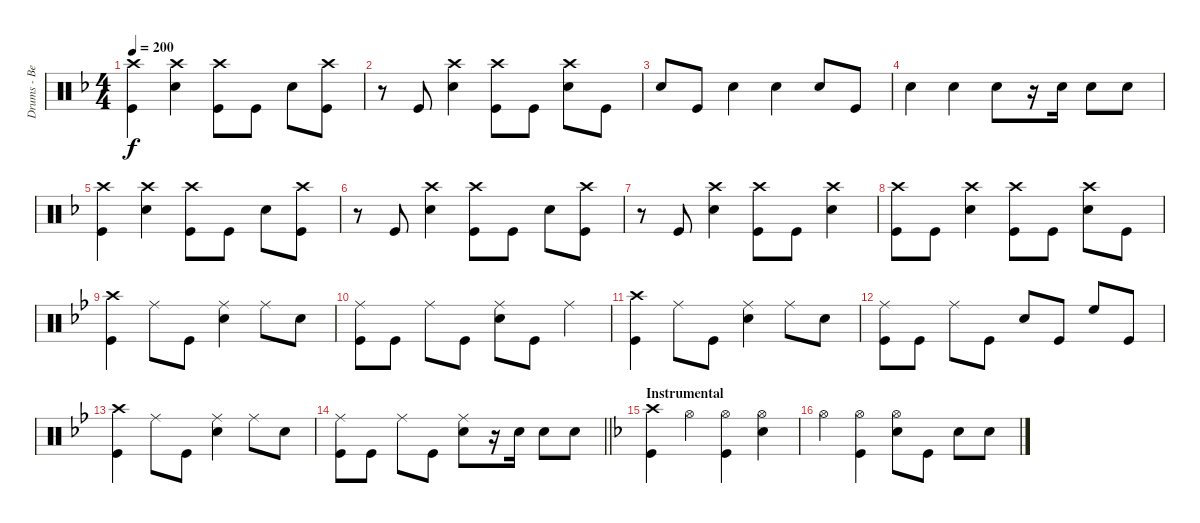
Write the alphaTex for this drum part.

\track ("Drums - Ben Johnston" "Drums - Be") {instrument percussion}
\staff {score}
\articulation defaults
\ts (4 4)
\tempo 200
\clef neutral
\ks f
("Crash high (hit)" "Kick (hit)").4{dy f} ("Crash high (hit)" "Snare (hit) 2").4 ("Crash high (hit)" "Kick (hit)").8 "Kick (hit)".8 "Snare (hit) 2".8 ("Crash high (hit)" "Kick (hit)").8 |
r.8 "Kick (hit)".8 ("Crash high (hit)" "Snare (hit) 2").4 ("Crash high (hit)" "Kick (hit)").8 "Kick (hit)".8 ("Crash high (hit)" "Snare (hit) 2").8 "Kick (hit)".8 |
"Snare (hit) 2".8 "Kick (hit)".8 "Snare (hit) 2".4 "Snare (hit) 2".4 "Snare (hit) 2".8 "Kick (hit)".8 |
"Snare (hit) 2".4 "Snare (hit) 2".4 "Snare (hit) 2".8 r.16 "Snare (hit) 2".16 "Snare (hit) 2".8 "Snare (hit) 2".8 |
("Crash high (hit)" "Kick (hit)").4 ("Crash high (hit)" "Snare (hit) 2").4 ("Crash high (hit)" "Kick (hit)").8 "Kick (hit)".8 "Snare (hit) 2".8 ("Crash high (hit)" "Kick (hit)").8 |
r.8 "Kick (hit)".8 ("Crash high (hit)" "Snare (hit) 2").4 ("Crash high (hit)" "Kick (hit)").8 "Kick (hit)".8 "Snare (hit) 2".8 ("Crash high (hit)" "Kick (hit)").8 |
r.8 "Kick (hit)".8 ("Crash high (hit)" "Snare (hit) 2").4 ("Crash high (hit)" "Kick (hit)").8 "Kick (hit)".8 ("Crash high (hit)" "Snare (hit) 2").4 |
("Crash high (hit)" "Kick (hit)").8 "Kick (hit)".8 ("Crash high (hit)" "Snare (hit) 2").4 ("Crash high (hit)" "Kick (hit)").8 "Kick (hit)".8 ("Crash high (hit)" "Snare (hit) 2").8 "Kick (hit)".8 |
\ks bb
("Crash high (hit)" "Kick (hit)").4 "Ride (middle)".8 "Kick (hit)".8 ("Ride (middle)" "Snare (hit) 2").4 "Ride (middle)".8 "Snare (hit) 2".8 |
("Ride (middle)" "Kick (hit)").8 "Kick (hit)".8 "Ride (middle)".8 "Kick (hit)".8 ("Ride (middle)" "Snare (hit) 2").8 "Kick (hit)".8 "Ride (middle)".4 |
("Crash high (hit)" "Kick (hit)").4 "Ride (middle)".8 "Kick (hit)".8 ("Ride (middle)" "Snare (hit) 2").4 "Ride (middle)".8 "Snare (hit) 2".8 |
("Ride (middle)" "Kick (hit)").8 "Kick (hit)".8 "Ride (middle)".8 "Kick (hit)".8 "Snare (hit) 2".8 "Kick (hit)".8 "High Floor Tom (hit)".8 "Kick (hit)".8 |
("Crash high (hit)" "Kick (hit)").4 "Ride (middle)".8 "Kick (hit)".8 ("Ride (middle)" "Snare (hit) 2").4 "Ride (middle)".8 "Snare (hit) 2".8 |
\barLineRight lightlight
("Ride (middle)" "Kick (hit)").8 "Kick (hit)".8 "Ride (middle)".8 "Kick (hit)".8 ("Ride (middle)" "Snare (hit) 2").8 r.16 "Snare (hit) 2".16 "Snare (hit) 2".8 "Snare (hit) 2".8 |
\section ("" "Instrumental")
\ks f
("Crash high (hit)" "Kick (hit)").4 "Hi-Hat (open)".4 ("Hi-Hat (open)" "Kick (hit)").4 ("Hi-Hat (open)" "Snare (hit) 2").4 |
"Hi-Hat (open)".4 ("Hi-Hat (open)" "Kick (hit)").4 ("Hi-Hat (open)" "Snare (hit) 2").8 "Kick (hit)".8 "Snare (hit) 2".8 "Snare (hit) 2".8
